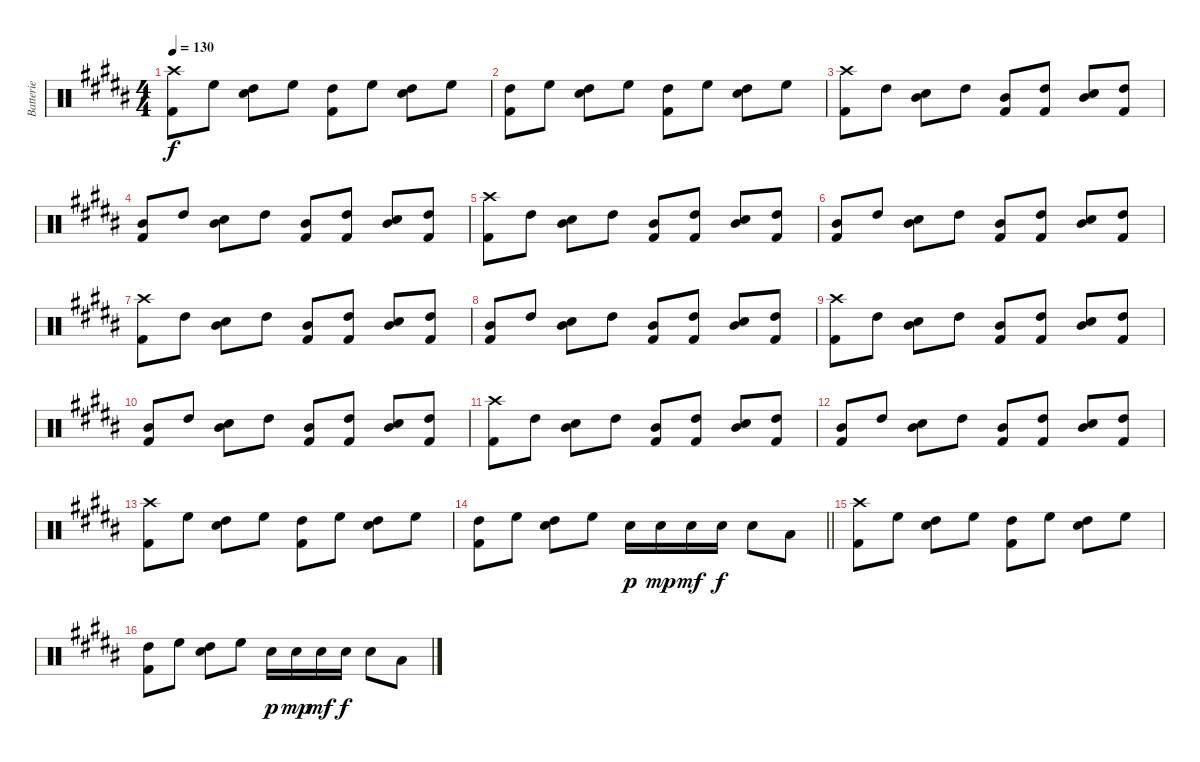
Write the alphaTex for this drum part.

\track ("Batterie" "Batterie") {instrument percussion}
\staff {score}
\articulation defaults
\ts (4 4)
\tempo 130
\clef neutral
\ks b
("Crash high (hit)" "Kick (hit) 2").8{dy f} "High Floor Tom (hit)".8 ("High Tom (hit)" "Snare (hit) 2").8 "High Floor Tom (hit)".8 ("High Tom (hit)" "Kick (hit) 2").8 "High Floor Tom (hit)".8 ("High Tom (hit)" "Snare (hit) 2").8 "High Floor Tom (hit)".8 |
("High Tom (hit)" "Kick (hit) 2").8 "High Floor Tom (hit)".8 ("High Tom (hit)" "Snare (hit) 2").8 "High Floor Tom (hit)".8 ("High Tom (hit)" "Kick (hit) 2").8 "High Floor Tom (hit)".8 ("High Tom (hit)" "Snare (hit) 2").8 "High Floor Tom (hit)".8 |
("Crash high (hit)" "Kick (hit) 2").8 "High Tom (hit)".8 ("Mid Tom (hit)" "Snare (hit) 2").8 "High Tom (hit)".8 ("Mid Tom (hit)" "Kick (hit) 2").8 ("High Tom (hit)" "Kick (hit) 2").8 ("Mid Tom (hit)" "Snare (hit) 2").8 ("High Tom (hit)" "Kick (hit) 2").8 |
("Mid Tom (hit)" "Kick (hit) 2").8 "High Tom (hit)".8 ("Mid Tom (hit)" "Snare (hit) 2").8 "High Tom (hit)".8 ("Mid Tom (hit)" "Kick (hit) 2").8 ("High Tom (hit)" "Kick (hit) 2").8 ("Mid Tom (hit)" "Snare (hit) 2").8 ("High Tom (hit)" "Kick (hit) 2").8 |
("Crash high (hit)" "Kick (hit) 2").8 "High Tom (hit)".8 ("Mid Tom (hit)" "Snare (hit) 2").8 "High Tom (hit)".8 ("Mid Tom (hit)" "Kick (hit) 2").8 ("High Tom (hit)" "Kick (hit) 2").8 ("Mid Tom (hit)" "Snare (hit) 2").8 ("High Tom (hit)" "Kick (hit) 2").8 |
("Mid Tom (hit)" "Kick (hit) 2").8 "High Tom (hit)".8 ("Mid Tom (hit)" "Snare (hit) 2").8 "High Tom (hit)".8 ("Mid Tom (hit)" "Kick (hit) 2").8 ("High Tom (hit)" "Kick (hit) 2").8 ("Mid Tom (hit)" "Snare (hit) 2").8 ("High Tom (hit)" "Kick (hit) 2").8 |
("Crash high (hit)" "Kick (hit) 2").8 "High Tom (hit)".8 ("Mid Tom (hit)" "Snare (hit) 2").8 "High Tom (hit)".8 ("Mid Tom (hit)" "Kick (hit) 2").8 ("High Tom (hit)" "Kick (hit) 2").8 ("Mid Tom (hit)" "Snare (hit) 2").8 ("High Tom (hit)" "Kick (hit) 2").8 |
("Mid Tom (hit)" "Kick (hit) 2").8 "High Tom (hit)".8 ("Mid Tom (hit)" "Snare (hit) 2").8 "High Tom (hit)".8 ("Mid Tom (hit)" "Kick (hit) 2").8 ("High Tom (hit)" "Kick (hit) 2").8 ("Mid Tom (hit)" "Snare (hit) 2").8 ("High Tom (hit)" "Kick (hit) 2").8 |
("Crash high (hit)" "Kick (hit) 2").8 "High Tom (hit)".8 ("Mid Tom (hit)" "Snare (hit) 2").8 "High Tom (hit)".8 ("Mid Tom (hit)" "Kick (hit) 2").8 ("High Tom (hit)" "Kick (hit) 2").8 ("Mid Tom (hit)" "Snare (hit) 2").8 ("High Tom (hit)" "Kick (hit) 2").8 |
("Mid Tom (hit)" "Kick (hit) 2").8 "High Tom (hit)".8 ("Mid Tom (hit)" "Snare (hit) 2").8 "High Tom (hit)".8 ("Mid Tom (hit)" "Kick (hit) 2").8 ("High Tom (hit)" "Kick (hit) 2").8 ("Mid Tom (hit)" "Snare (hit) 2").8 ("High Tom (hit)" "Kick (hit) 2").8 |
("Crash high (hit)" "Kick (hit) 2").8 "High Tom (hit)".8 ("Mid Tom (hit)" "Snare (hit) 2").8 "High Tom (hit)".8 ("Mid Tom (hit)" "Kick (hit) 2").8 ("High Tom (hit)" "Kick (hit) 2").8 ("Mid Tom (hit)" "Snare (hit) 2").8 ("High Tom (hit)" "Kick (hit) 2").8 |
("Mid Tom (hit)" "Kick (hit) 2").8 "High Tom (hit)".8 ("Mid Tom (hit)" "Snare (hit) 2").8 "High Tom (hit)".8 ("Mid Tom (hit)" "Kick (hit) 2").8 ("High Tom (hit)" "Kick (hit) 2").8 ("Mid Tom (hit)" "Snare (hit) 2").8 ("High Tom (hit)" "Kick (hit) 2").8 |
("Crash high (hit)" "Kick (hit) 2").8 "High Floor Tom (hit)".8 ("High Tom (hit)" "Snare (hit) 2").8 "High Floor Tom (hit)".8 ("High Tom (hit)" "Kick (hit) 2").8 "High Floor Tom (hit)".8 ("High Tom (hit)" "Snare (hit) 2").8 "High Floor Tom (hit)".8 |
\barLineRight lightlight
("High Tom (hit)" "Kick (hit) 2").8 "High Floor Tom (hit)".8 ("High Tom (hit)" "Snare (hit) 2").8 "High Floor Tom (hit)".8 "Snare (hit) 2".16{dy p} "Snare (hit) 2".16{dy mp} "Snare (hit) 2".16{dy mf} "Snare (hit) 2".16{dy f} "Snare (hit) 2".8 "Low Tom (hit)".8 |
("Crash high (hit)" "Kick (hit) 2").8 "High Floor Tom (hit)".8 ("High Tom (hit)" "Snare (hit) 2").8 "High Floor Tom (hit)".8 ("High Tom (hit)" "Kick (hit) 2").8 "High Floor Tom (hit)".8 ("High Tom (hit)" "Snare (hit) 2").8 "High Floor Tom (hit)".8 |
("High Tom (hit)" "Kick (hit) 2").8 "High Floor Tom (hit)".8 ("High Tom (hit)" "Snare (hit) 2").8 "High Floor Tom (hit)".8 "Snare (hit) 2".16{dy p} "Snare (hit) 2".16{dy mp} "Snare (hit) 2".16{dy mf} "Snare (hit) 2".16{dy f} "Snare (hit) 2".8 "Low Tom (hit)".8
